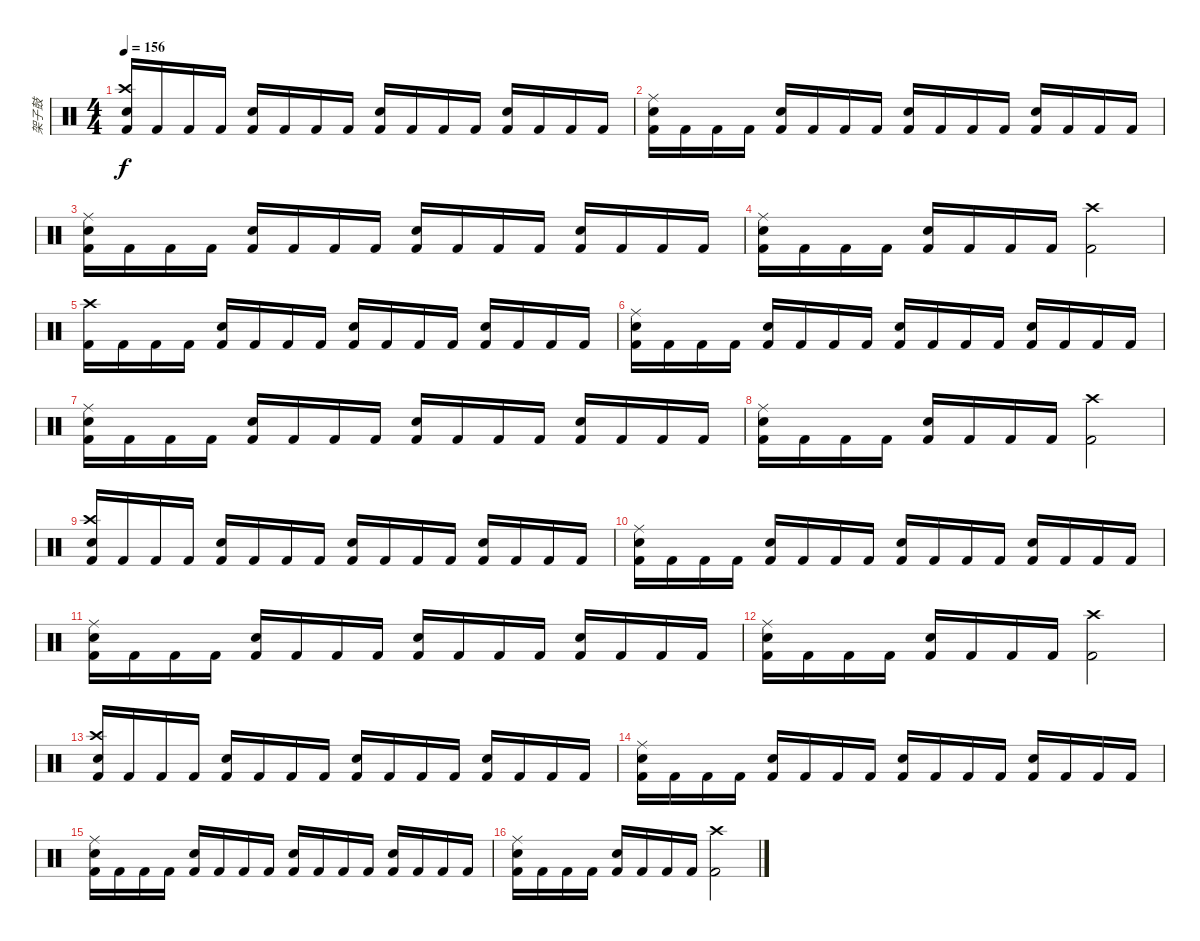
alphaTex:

\track ("架子鼓" "架子鼓") {instrument percussion}
\staff {score}
\articulation defaults
\ts (4 4)
\tempo 156
\clef neutral
\ks c
("Kick (hit) 2" "Crash high (hit)" "Electric Snare (hit)").16{dy f} "Kick (hit) 2".16 "Kick (hit) 2".16 "Kick (hit) 2".16 ("Kick (hit) 2" "Electric Snare (hit)").16 "Kick (hit) 2".16 "Kick (hit) 2".16 "Kick (hit) 2".16 ("Kick (hit) 2" "Electric Snare (hit)").16 "Kick (hit) 2".16 "Kick (hit) 2".16 "Kick (hit) 2".16 ("Kick (hit) 2" "Electric Snare (hit)").16 "Kick (hit) 2".16 "Kick (hit) 2".16 "Kick (hit) 2".16 |
("Kick (hit) 2" "Electric Snare (hit)" "Ride (middle)").16 "Kick (hit) 2".16 "Kick (hit) 2".16 "Kick (hit) 2".16 ("Kick (hit) 2" "Electric Snare (hit)").16 "Kick (hit) 2".16 "Kick (hit) 2".16 "Kick (hit) 2".16 ("Kick (hit) 2" "Electric Snare (hit)").16 "Kick (hit) 2".16 "Kick (hit) 2".16 "Kick (hit) 2".16 ("Kick (hit) 2" "Electric Snare (hit)").16 "Kick (hit) 2".16 "Kick (hit) 2".16 "Kick (hit) 2".16 |
("Kick (hit) 2" "Electric Snare (hit)" "Ride (middle)").16 "Kick (hit) 2".16 "Kick (hit) 2".16 "Kick (hit) 2".16 ("Kick (hit) 2" "Electric Snare (hit)").16 "Kick (hit) 2".16 "Kick (hit) 2".16 "Kick (hit) 2".16 ("Kick (hit) 2" "Electric Snare (hit)").16 "Kick (hit) 2".16 "Kick (hit) 2".16 "Kick (hit) 2".16 ("Kick (hit) 2" "Electric Snare (hit)").16 "Kick (hit) 2".16 "Kick (hit) 2".16 "Kick (hit) 2".16 |
("Kick (hit) 2" "Electric Snare (hit)" "Ride (middle)").16 "Kick (hit) 2".16 "Kick (hit) 2".16 "Kick (hit) 2".16 ("Kick (hit) 2" "Electric Snare (hit)").16 "Kick (hit) 2".16 "Kick (hit) 2".16 "Kick (hit) 2".16 ("Kick (hit) 2" "Crash high (hit)").2 |
("Kick (hit) 2" "Crash high (hit)").16 "Kick (hit) 2".16 "Kick (hit) 2".16 "Kick (hit) 2".16 ("Kick (hit) 2" "Electric Snare (hit)").16 "Kick (hit) 2".16 "Kick (hit) 2".16 "Kick (hit) 2".16 ("Kick (hit) 2" "Electric Snare (hit)").16 "Kick (hit) 2".16 "Kick (hit) 2".16 "Kick (hit) 2".16 ("Kick (hit) 2" "Electric Snare (hit)").16 "Kick (hit) 2".16 "Kick (hit) 2".16 "Kick (hit) 2".16 |
("Kick (hit) 2" "Electric Snare (hit)" "Ride (middle)").16 "Kick (hit) 2".16 "Kick (hit) 2".16 "Kick (hit) 2".16 ("Kick (hit) 2" "Electric Snare (hit)").16 "Kick (hit) 2".16 "Kick (hit) 2".16 "Kick (hit) 2".16 ("Kick (hit) 2" "Electric Snare (hit)").16 "Kick (hit) 2".16 "Kick (hit) 2".16 "Kick (hit) 2".16 ("Kick (hit) 2" "Electric Snare (hit)").16 "Kick (hit) 2".16 "Kick (hit) 2".16 "Kick (hit) 2".16 |
("Kick (hit) 2" "Electric Snare (hit)" "Ride (middle)").16 "Kick (hit) 2".16 "Kick (hit) 2".16 "Kick (hit) 2".16 ("Kick (hit) 2" "Electric Snare (hit)").16 "Kick (hit) 2".16 "Kick (hit) 2".16 "Kick (hit) 2".16 ("Kick (hit) 2" "Electric Snare (hit)").16 "Kick (hit) 2".16 "Kick (hit) 2".16 "Kick (hit) 2".16 ("Kick (hit) 2" "Electric Snare (hit)").16 "Kick (hit) 2".16 "Kick (hit) 2".16 "Kick (hit) 2".16 |
("Kick (hit) 2" "Electric Snare (hit)" "Ride (middle)").16 "Kick (hit) 2".16 "Kick (hit) 2".16 "Kick (hit) 2".16 ("Kick (hit) 2" "Electric Snare (hit)").16 "Kick (hit) 2".16 "Kick (hit) 2".16 "Kick (hit) 2".16 ("Kick (hit) 2" "Crash high (hit)").2 |
("Kick (hit) 2" "Crash high (hit)" "Electric Snare (hit)").16 "Kick (hit) 2".16 "Kick (hit) 2".16 "Kick (hit) 2".16 ("Kick (hit) 2" "Electric Snare (hit)").16 "Kick (hit) 2".16 "Kick (hit) 2".16 "Kick (hit) 2".16 ("Kick (hit) 2" "Electric Snare (hit)").16 "Kick (hit) 2".16 "Kick (hit) 2".16 "Kick (hit) 2".16 ("Kick (hit) 2" "Electric Snare (hit)").16 "Kick (hit) 2".16 "Kick (hit) 2".16 "Kick (hit) 2".16 |
("Kick (hit) 2" "Electric Snare (hit)" "Ride (middle)").16 "Kick (hit) 2".16 "Kick (hit) 2".16 "Kick (hit) 2".16 ("Kick (hit) 2" "Electric Snare (hit)").16 "Kick (hit) 2".16 "Kick (hit) 2".16 "Kick (hit) 2".16 ("Kick (hit) 2" "Electric Snare (hit)").16 "Kick (hit) 2".16 "Kick (hit) 2".16 "Kick (hit) 2".16 ("Kick (hit) 2" "Electric Snare (hit)").16 "Kick (hit) 2".16 "Kick (hit) 2".16 "Kick (hit) 2".16 |
("Kick (hit) 2" "Electric Snare (hit)" "Ride (middle)").16 "Kick (hit) 2".16 "Kick (hit) 2".16 "Kick (hit) 2".16 ("Kick (hit) 2" "Electric Snare (hit)").16 "Kick (hit) 2".16 "Kick (hit) 2".16 "Kick (hit) 2".16 ("Kick (hit) 2" "Electric Snare (hit)").16 "Kick (hit) 2".16 "Kick (hit) 2".16 "Kick (hit) 2".16 ("Kick (hit) 2" "Electric Snare (hit)").16 "Kick (hit) 2".16 "Kick (hit) 2".16 "Kick (hit) 2".16 |
("Kick (hit) 2" "Electric Snare (hit)" "Ride (middle)").16 "Kick (hit) 2".16 "Kick (hit) 2".16 "Kick (hit) 2".16 ("Kick (hit) 2" "Electric Snare (hit)").16 "Kick (hit) 2".16 "Kick (hit) 2".16 "Kick (hit) 2".16 ("Kick (hit) 2" "Crash high (hit)").2 |
("Kick (hit) 2" "Crash high (hit)" "Electric Snare (hit)").16 "Kick (hit) 2".16 "Kick (hit) 2".16 "Kick (hit) 2".16 ("Kick (hit) 2" "Electric Snare (hit)").16 "Kick (hit) 2".16 "Kick (hit) 2".16 "Kick (hit) 2".16 ("Kick (hit) 2" "Electric Snare (hit)").16 "Kick (hit) 2".16 "Kick (hit) 2".16 "Kick (hit) 2".16 ("Kick (hit) 2" "Electric Snare (hit)").16 "Kick (hit) 2".16 "Kick (hit) 2".16 "Kick (hit) 2".16 |
("Kick (hit) 2" "Electric Snare (hit)" "Ride (middle)").16 "Kick (hit) 2".16 "Kick (hit) 2".16 "Kick (hit) 2".16 ("Kick (hit) 2" "Electric Snare (hit)").16 "Kick (hit) 2".16 "Kick (hit) 2".16 "Kick (hit) 2".16 ("Kick (hit) 2" "Electric Snare (hit)").16 "Kick (hit) 2".16 "Kick (hit) 2".16 "Kick (hit) 2".16 ("Kick (hit) 2" "Electric Snare (hit)").16 "Kick (hit) 2".16 "Kick (hit) 2".16 "Kick (hit) 2".16 |
("Kick (hit) 2" "Electric Snare (hit)" "Ride (middle)").16 "Kick (hit) 2".16 "Kick (hit) 2".16 "Kick (hit) 2".16 ("Kick (hit) 2" "Electric Snare (hit)").16 "Kick (hit) 2".16 "Kick (hit) 2".16 "Kick (hit) 2".16 ("Kick (hit) 2" "Electric Snare (hit)").16 "Kick (hit) 2".16 "Kick (hit) 2".16 "Kick (hit) 2".16 ("Kick (hit) 2" "Electric Snare (hit)").16 "Kick (hit) 2".16 "Kick (hit) 2".16 "Kick (hit) 2".16 |
("Kick (hit) 2" "Electric Snare (hit)" "Ride (middle)").16 "Kick (hit) 2".16 "Kick (hit) 2".16 "Kick (hit) 2".16 ("Kick (hit) 2" "Electric Snare (hit)").16 "Kick (hit) 2".16 "Kick (hit) 2".16 "Kick (hit) 2".16 ("Kick (hit) 2" "Crash high (hit)").2
